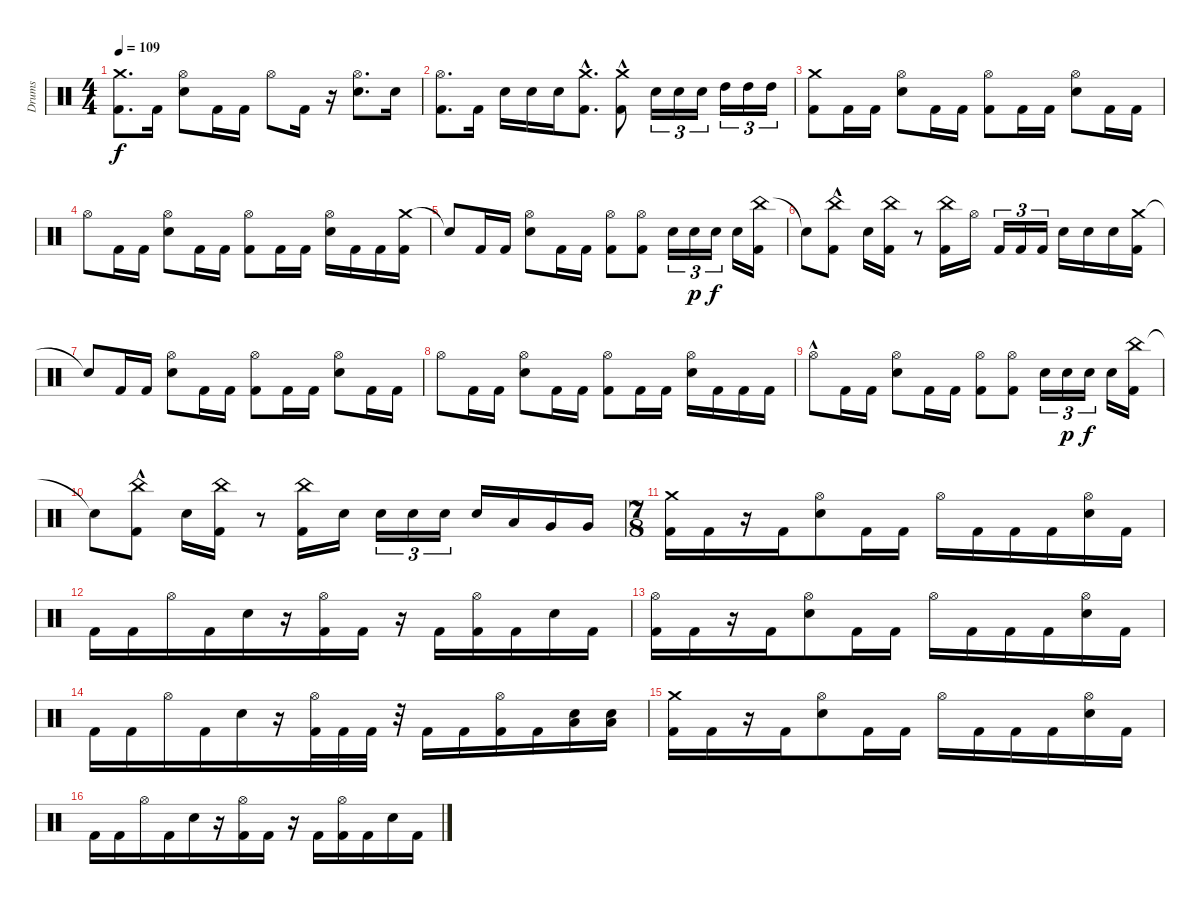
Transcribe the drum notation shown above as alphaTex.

\track ("Drums" "Drums") {instrument percussion}
\staff {score}
\articulation defaults
\ts (4 4)
\tempo 109
\clef neutral
\ks c
("Kick (hit) 2" "Crash medium (hit)").8{d dy f} "Kick (hit) 2".16 ("Electric Snare (hit)" "Hi-Hat (open)").8 "Kick (hit) 2".16 "Kick (hit) 2".16 "Hi-Hat (open)".8 "Kick (hit) 2".16 r.16 ("Electric Snare (hit)" "Hi-Hat (open)").8{d} "Electric Snare (hit)".16 |
("Hi-Hat (open)" "Kick (hit) 2").8{d} "Kick (hit) 2".16 "Electric Snare (hit)".16 "Electric Snare (hit)".16 "Electric Snare (hit)".16 ("Crash medium (hit)"{hac} "Kick (hit) 2"{hac}).8{d} ("Kick (hit) 2" "Crash medium (hit)"{hac}).8 "Electric Snare (hit)".16{tu (3 2)} "Electric Snare (hit)".16{tu (3 2)} "Electric Snare (hit)".16{tu (3 2)} "High Tom (hit)".16{tu (3 2)} "High Tom (hit)".16{tu (3 2)} "High Tom (hit)".16{tu (3 2)} |
("Kick (hit) 2" "Crash medium (hit)").8 "Kick (hit) 2".16 "Kick (hit) 2".16 ("Electric Snare (hit)" "Hi-Hat (open)").8 "Kick (hit) 2".16 "Kick (hit) 2".16 ("Kick (hit) 2" "Hi-Hat (open)").8 "Kick (hit) 2".16 "Kick (hit) 2".16 ("Electric Snare (hit)" "Hi-Hat (open)").8 "Kick (hit) 2".16 "Kick (hit) 2".16 |
"Hi-Hat (open)".8 "Kick (hit) 2".16 "Kick (hit) 2".16 ("Electric Snare (hit)" "Hi-Hat (open)").8 "Kick (hit) 2".16 "Kick (hit) 2".16 ("Kick (hit) 2" "Hi-Hat (open)").8 "Kick (hit) 2".16 "Kick (hit) 2".16 ("Electric Snare (hit)" "Hi-Hat (open)").16 "Kick (hit) 2".16 "Kick (hit) 2".16 ("Crash medium (hit)" "Kick (hit) 2").16 |
"Snare (hit)"{t}.8 "Kick (hit) 2".16 "Kick (hit) 2".16 ("Electric Snare (hit)" "Hi-Hat (open)").8 "Kick (hit) 2".16 "Kick (hit) 2".16 ("Kick (hit) 2" "Hi-Hat (open)").8 ("Kick (hit) 2" "Hi-Hat (open)").8 "Electric Snare (hit)".16{tu (3 2)} "Electric Snare (hit)".16{tu (3 2) dy p} "Electric Snare (hit)".16{tu (3 2) dy f} "Electric Snare (hit)".16 ("China (hit)" "Kick (hit) 2").16 |
"Snare (hit)"{t}.8 ("China (hit)"{hac} "Kick (hit) 2"{hac}).8 "Electric Snare (hit)".16 ("China (hit)" "Kick (hit) 2").16 r.8 ("China (hit)" "Kick (hit) 2").16 "Hi-Hat (open)".16 "Kick (hit) 2".16{tu (3 2)} "Kick (hit) 2".16{tu (3 2)} "Kick (hit) 2".16{tu (3 2)} "Electric Snare (hit)".16 "Electric Snare (hit)".16 "Electric Snare (hit)".16 ("Crash medium (hit)" "Kick (hit) 2").16 |
"Snare (hit)"{t}.8 "Kick (hit) 2".16 "Kick (hit) 2".16 ("Electric Snare (hit)" "Hi-Hat (open)").8 "Kick (hit) 2".16 "Kick (hit) 2".16 ("Kick (hit) 2" "Hi-Hat (open)").8 "Kick (hit) 2".16 "Kick (hit) 2".16 ("Electric Snare (hit)" "Hi-Hat (open)").8 "Kick (hit) 2".16 "Kick (hit) 2".16 |
"Hi-Hat (open)".8 "Kick (hit) 2".16 "Kick (hit) 2".16 ("Electric Snare (hit)" "Hi-Hat (open)").8 "Kick (hit) 2".16 "Kick (hit) 2".16 ("Kick (hit) 2" "Hi-Hat (open)").8 "Kick (hit) 2".16 "Kick (hit) 2".16 ("Electric Snare (hit)" "Hi-Hat (open)").16 "Kick (hit) 2".16 "Kick (hit) 2".16 "Kick (hit) 2".16 |
"Hi-Hat (open)"{hac}.8 "Kick (hit) 2".16 "Kick (hit) 2".16 ("Electric Snare (hit)" "Hi-Hat (open)").8 "Kick (hit) 2".16 "Kick (hit) 2".16 ("Kick (hit) 2" "Hi-Hat (open)").8 ("Kick (hit) 2" "Hi-Hat (open)").8 "Electric Snare (hit)".16{tu (3 2)} "Electric Snare (hit)".16{tu (3 2) dy p} "Electric Snare (hit)".16{tu (3 2) dy f} "Electric Snare (hit)".16 ("China (hit)" "Kick (hit) 2").16 |
"Snare (hit)"{t}.8 ("China (hit)"{hac} "Kick (hit) 2"{hac}).8 "Electric Snare (hit)".16 ("China (hit)" "Kick (hit) 2").16 r.8 ("China (hit)" "Kick (hit) 2").16 "Electric Snare (hit)".16 "Electric Snare (hit)".16{tu (3 2)} "Electric Snare (hit)".16{tu (3 2)} "Electric Snare (hit)".16{tu (3 2)} "Electric Snare (hit)".16 "Low Tom (hit)".16 "Very Low Tom (hit)".16 "Very Low Tom (hit)".16 |
\ts (7 8)
("Crash medium (hit)" "Kick (hit) 2").16 "Kick (hit) 2".16 r.16 "Kick (hit) 2".16 ("Hi-Hat (open)" "Electric Snare (hit)").8 "Kick (hit) 2".16 "Kick (hit) 2".16 "Hi-Hat (open)".16 "Kick (hit) 2".16 "Kick (hit) 2".16 "Kick (hit) 2".16 ("Hi-Hat (open)" "Electric Snare (hit)").16 "Kick (hit) 2".16 |
"Kick (hit) 2".16 "Kick (hit) 2".16 "Hi-Hat (open)".16 "Kick (hit) 2".16 "Electric Snare (hit)".16 r.16 ("Kick (hit) 2" "Hi-Hat (open)").16 "Kick (hit) 2".16 r.16 "Kick (hit) 2".16 ("Kick (hit) 2" "Hi-Hat (open)").16 "Kick (hit) 2".16 "Electric Snare (hit)".16 "Kick (hit) 2".16 |
("Hi-Hat (open)" "Kick (hit) 2").16 "Kick (hit) 2".16 r.16 "Kick (hit) 2".16 ("Hi-Hat (open)" "Electric Snare (hit)").8 "Kick (hit) 2".16 "Kick (hit) 2".16 "Hi-Hat (open)".16 "Kick (hit) 2".16 "Kick (hit) 2".16 "Kick (hit) 2".16 ("Hi-Hat (open)" "Electric Snare (hit)").16 "Kick (hit) 2".16 |
"Kick (hit) 2".16 "Kick (hit) 2".16 "Hi-Hat (open)".16 "Kick (hit) 2".16 "Electric Snare (hit)".16 r.16 ("Kick (hit) 2" "Hi-Hat (open)").32 "Kick (hit) 2".32 "Kick (hit) 2".32 r.32 "Kick (hit) 2".16 "Kick (hit) 2".16 ("Kick (hit) 2" "Hi-Hat (open)").16 "Kick (hit) 2".16 ("Low Floor Tom (hit)" "Electric Snare (hit)").16 ("Low Floor Tom (hit)" "Electric Snare (hit)").16 |
("Crash medium (hit)" "Kick (hit) 2").16 "Kick (hit) 2".16 r.16 "Kick (hit) 2".16 ("Hi-Hat (open)" "Electric Snare (hit)").8 "Kick (hit) 2".16 "Kick (hit) 2".16 "Hi-Hat (open)".16 "Kick (hit) 2".16 "Kick (hit) 2".16 "Kick (hit) 2".16 ("Hi-Hat (open)" "Electric Snare (hit)").16 "Kick (hit) 2".16 |
"Kick (hit) 2".16 "Kick (hit) 2".16 "Hi-Hat (open)".16 "Kick (hit) 2".16 "Electric Snare (hit)".16 r.16 ("Kick (hit) 2" "Hi-Hat (open)").16 "Kick (hit) 2".16 r.16 "Kick (hit) 2".16 ("Kick (hit) 2" "Hi-Hat (open)").16 "Kick (hit) 2".16 "Electric Snare (hit)".16 "Kick (hit) 2".16
